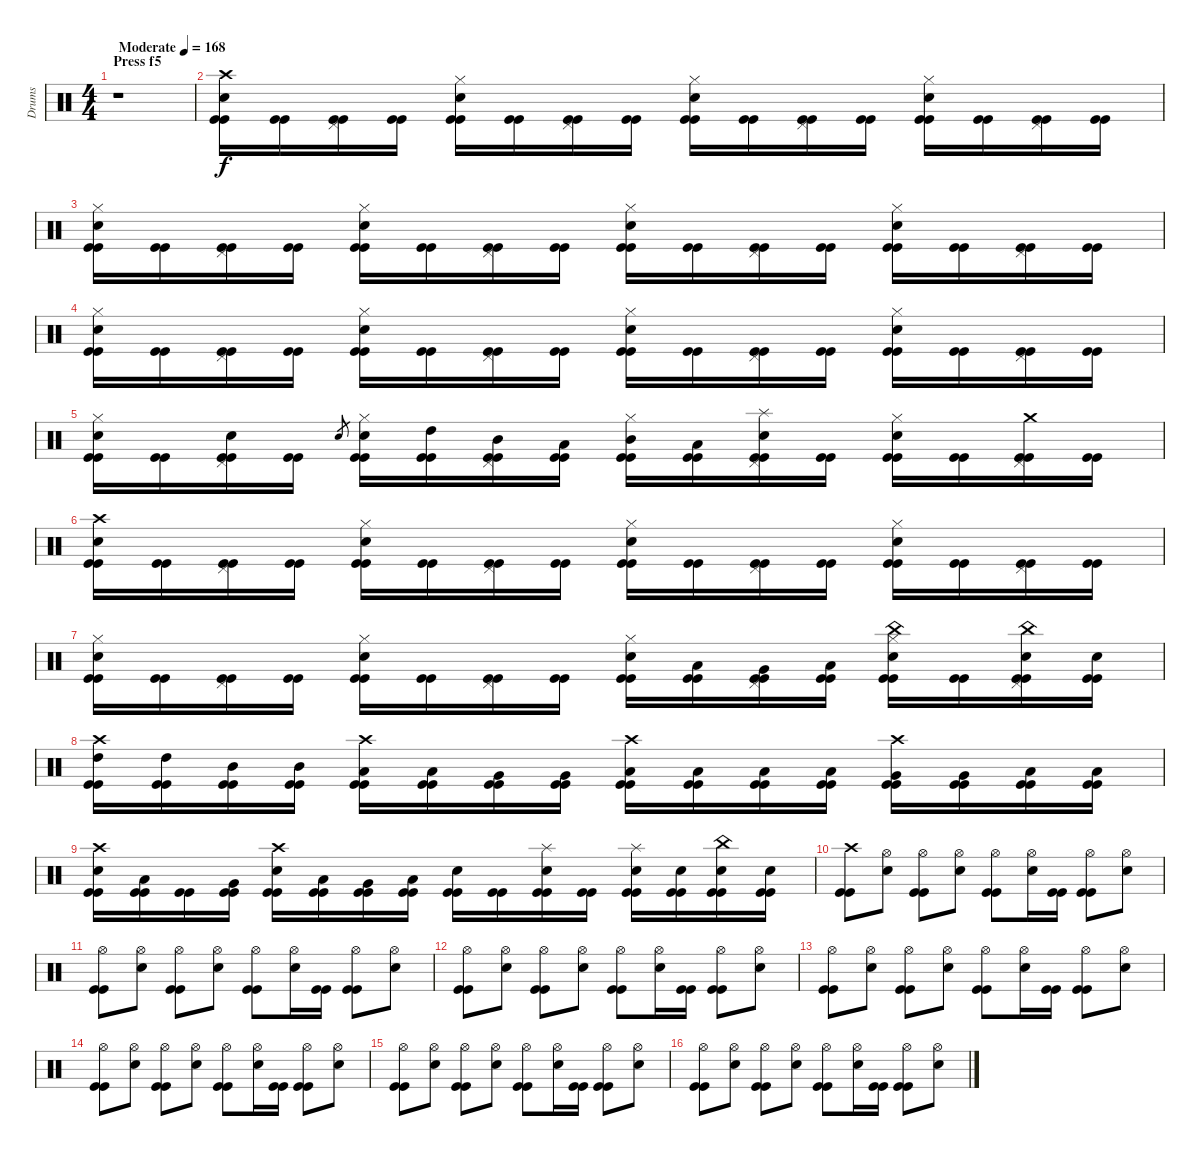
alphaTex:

\track ("Drums" "Drums") {instrument percussion}
\staff {score}
\articulation defaults
\ts (4 4)
\section ("" "Press f5")
\tempo (168 "Moderate")
\clef neutral
\ks c
r.1{dy f} |
("Crash high (hit)" "Electric Snare (hit)" "Kick (hit)" "Kick (hit)").16 ("Kick (hit)" "Kick (hit)").16 ("Pedal Hi-Hat (hit)" "Kick (hit)" "Kick (hit)").16 ("Kick (hit)" "Kick (hit)").16 ("Hi-Hat (closed)" "Electric Snare (hit)" "Kick (hit)" "Kick (hit)").16 ("Kick (hit)" "Kick (hit)").16 ("Pedal Hi-Hat (hit)" "Kick (hit)" "Kick (hit)").16 ("Kick (hit)" "Kick (hit)").16 ("Hi-Hat (closed)" "Electric Snare (hit)" "Kick (hit)" "Kick (hit)").16 ("Kick (hit)" "Kick (hit)").16 ("Pedal Hi-Hat (hit)" "Kick (hit)" "Kick (hit)").16 ("Kick (hit)" "Kick (hit)").16 ("Hi-Hat (closed)" "Electric Snare (hit)" "Kick (hit)" "Kick (hit)").16 ("Kick (hit)" "Kick (hit)").16 ("Pedal Hi-Hat (hit)" "Kick (hit)" "Kick (hit)").16 ("Kick (hit)" "Kick (hit)").16 |
("Hi-Hat (closed)" "Electric Snare (hit)" "Kick (hit)" "Kick (hit)").16 ("Kick (hit)" "Kick (hit)").16 ("Pedal Hi-Hat (hit)" "Kick (hit)" "Kick (hit)").16 ("Kick (hit)" "Kick (hit)").16 ("Hi-Hat (closed)" "Electric Snare (hit)" "Kick (hit)" "Kick (hit)").16 ("Kick (hit)" "Kick (hit)").16 ("Pedal Hi-Hat (hit)" "Kick (hit)" "Kick (hit)").16 ("Kick (hit)" "Kick (hit)").16 ("Hi-Hat (closed)" "Electric Snare (hit)" "Kick (hit)" "Kick (hit)").16 ("Kick (hit)" "Kick (hit)").16 ("Pedal Hi-Hat (hit)" "Kick (hit)" "Kick (hit)").16 ("Kick (hit)" "Kick (hit)").16 ("Hi-Hat (closed)" "Electric Snare (hit)" "Kick (hit)" "Kick (hit)").16 ("Kick (hit)" "Kick (hit)").16 ("Pedal Hi-Hat (hit)" "Kick (hit)" "Kick (hit)").16 ("Kick (hit)" "Kick (hit)").16 |
("Hi-Hat (closed)" "Electric Snare (hit)" "Kick (hit)" "Kick (hit)").16 ("Kick (hit)" "Kick (hit)").16 ("Pedal Hi-Hat (hit)" "Kick (hit)" "Kick (hit)").16 ("Kick (hit)" "Kick (hit)").16 ("Hi-Hat (closed)" "Electric Snare (hit)" "Kick (hit)" "Kick (hit)").16 ("Kick (hit)" "Kick (hit)").16 ("Pedal Hi-Hat (hit)" "Kick (hit)" "Kick (hit)").16 ("Kick (hit)" "Kick (hit)").16 ("Hi-Hat (closed)" "Electric Snare (hit)" "Kick (hit)" "Kick (hit)").16 ("Kick (hit)" "Kick (hit)").16 ("Pedal Hi-Hat (hit)" "Kick (hit)" "Kick (hit)").16 ("Kick (hit)" "Kick (hit)").16 ("Hi-Hat (closed)" "Electric Snare (hit)" "Kick (hit)" "Kick (hit)").16 ("Kick (hit)" "Kick (hit)").16 ("Pedal Hi-Hat (hit)" "Kick (hit)" "Kick (hit)").16 ("Kick (hit)" "Kick (hit)").16 |
("Hi-Hat (closed)" "Electric Snare (hit)" "Kick (hit)" "Kick (hit)").16 ("Kick (hit)" "Kick (hit)").16 ("Pedal Hi-Hat (hit)" "Electric Snare (hit)" "Kick (hit)" "Kick (hit)").16 ("Kick (hit)" "Kick (hit)").16 "Electric Snare (hit)".8{gr} ("Hi-Hat (closed)" "Electric Snare (hit)" "Kick (hit)" "Kick (hit)").16 ("High Tom (hit)" "Kick (hit)" "Kick (hit)").16 ("Pedal Hi-Hat (hit)" "Mid Tom (hit)" "Kick (hit)" "Kick (hit)").16 ("Low Tom (hit)" "Kick (hit)" "Kick (hit)").16 ("Hi-Hat (closed)" "Mid Tom (hit)" "Kick (hit)" "Kick (hit)").16 ("Low Tom (hit)" "Kick (hit)" "Kick (hit)").16 ("Splash (hit)" "Pedal Hi-Hat (hit)" "Electric Snare (hit)" "Kick (hit)" "Kick (hit)").16 ("Kick (hit)" "Kick (hit)").16 ("Hi-Hat (closed)" "Electric Snare (hit)" "Kick (hit)" "Kick (hit)").16 ("Kick (hit)" "Kick (hit)").16 ("Crash medium (hit)" "Pedal Hi-Hat (hit)" "Kick (hit)" "Kick (hit)").16 ("Kick (hit)" "Kick (hit)").16 |
("Crash high (hit)" "Electric Snare (hit)" "Kick (hit)" "Kick (hit)").16 ("Kick (hit)" "Kick (hit)").16 ("Pedal Hi-Hat (hit)" "Kick (hit)" "Kick (hit)").16 ("Kick (hit)" "Kick (hit)").16 ("Hi-Hat (closed)" "Electric Snare (hit)" "Kick (hit)" "Kick (hit)").16 ("Kick (hit)" "Kick (hit)").16 ("Pedal Hi-Hat (hit)" "Kick (hit)" "Kick (hit)").16 ("Kick (hit)" "Kick (hit)").16 ("Hi-Hat (closed)" "Electric Snare (hit)" "Kick (hit)" "Kick (hit)").16 ("Kick (hit)" "Kick (hit)").16 ("Pedal Hi-Hat (hit)" "Kick (hit)" "Kick (hit)").16 ("Kick (hit)" "Kick (hit)").16 ("Hi-Hat (closed)" "Electric Snare (hit)" "Kick (hit)" "Kick (hit)").16 ("Kick (hit)" "Kick (hit)").16 ("Pedal Hi-Hat (hit)" "Kick (hit)" "Kick (hit)").16 ("Kick (hit)" "Kick (hit)").16 |
("Hi-Hat (closed)" "Electric Snare (hit)" "Kick (hit)" "Kick (hit)").16 ("Kick (hit)" "Kick (hit)").16 ("Pedal Hi-Hat (hit)" "Kick (hit)" "Kick (hit)").16 ("Kick (hit)" "Kick (hit)").16 ("Hi-Hat (closed)" "Electric Snare (hit)" "Kick (hit)" "Kick (hit)").16 ("Kick (hit)" "Kick (hit)").16 ("Pedal Hi-Hat (hit)" "Kick (hit)" "Kick (hit)").16 ("Kick (hit)" "Kick (hit)").16 ("Hi-Hat (closed)" "Electric Snare (hit)" "Kick (hit)" "Kick (hit)").16 ("Low Tom (hit)" "Kick (hit)" "Kick (hit)").16 ("Pedal Hi-Hat (hit)" "Very Low Tom (hit)" "Kick (hit)" "Kick (hit)").16 ("Low Tom (hit)" "Kick (hit)" "Kick (hit)").16 ("China (hit)" "Hi-Hat (closed)" "Electric Snare (hit)" "Kick (hit)" "Kick (hit)").16 ("Kick (hit)" "Kick (hit)").16 ("China (hit)" "Pedal Hi-Hat (hit)" "Electric Snare (hit)" "Kick (hit)" "Kick (hit)").16 ("Electric Snare (hit)" "Kick (hit)" "Kick (hit)").16 |
("Crash high (hit)" "High Tom (hit)" "Kick (hit)" "Kick (hit)").16 ("High Tom (hit)" "Kick (hit)" "Kick (hit)").16 ("Mid Tom (hit)" "Kick (hit)" "Kick (hit)").16 ("Mid Tom (hit)" "Kick (hit)" "Kick (hit)").16 ("Crash high (hit)" "Low Tom (hit)" "Kick (hit)" "Kick (hit)").16 ("Low Tom (hit)" "Kick (hit)" "Kick (hit)").16 ("Very Low Tom (hit)" "Kick (hit)" "Kick (hit)").16 ("Very Low Tom (hit)" "Kick (hit)" "Kick (hit)").16 ("Crash high (hit)" "Low Floor Tom (hit)" "Kick (hit)" "Kick (hit)").16 ("Low Floor Tom (hit)" "Kick (hit)" "Kick (hit)").16 ("Low Tom (hit)" "Kick (hit)" "Kick (hit)").16 ("Low Tom (hit)" "Kick (hit)" "Kick (hit)").16 ("Crash high (hit)" "Very Low Tom (hit)" "Kick (hit)" "Kick (hit)").16 ("Very Low Tom (hit)" "Kick (hit)" "Kick (hit)").16 ("Low Floor Tom (hit)" "Kick (hit)" "Kick (hit)").16 ("Low Floor Tom (hit)" "Kick (hit)" "Kick (hit)").16 |
("Crash high (hit)" "Electric Snare (hit)" "Kick (hit)" "Kick (hit)").16 ("Low Tom (hit)" "Kick (hit)" "Kick (hit)").16 ("Kick (hit)" "Kick (hit)").16 ("Very Low Tom (hit)" "Kick (hit)" "Kick (hit)").16 ("Crash high (hit)" "Electric Snare (hit)" "Kick (hit)" "Kick (hit)").16 ("Low Tom (hit)" "Kick (hit)" "Kick (hit)").16 ("Very Low Tom (hit)" "Kick (hit)" "Kick (hit)").16 ("Low Floor Tom (hit)" "Kick (hit)" "Kick (hit)").16 ("Electric Snare (hit)" "Kick (hit)" "Kick (hit)").16 ("Kick (hit)" "Kick (hit)").16 ("Splash (hit)" "Electric Snare (hit)" "Kick (hit)" "Kick (hit)").16 ("Kick (hit)" "Kick (hit)").16 ("Splash (hit)" "Electric Snare (hit)" "Kick (hit)" "Kick (hit)").16 ("Electric Snare (hit)" "Kick (hit)" "Kick (hit)").16 ("China (hit)" "Electric Snare (hit)" "Kick (hit)" "Kick (hit)").16 ("Electric Snare (hit)" "Kick (hit)" "Kick (hit)").16 |
("Crash high (hit)" "Kick (hit)" "Kick (hit)").8 ("Hi-Hat (open)" "Electric Snare (hit)").8 ("Hi-Hat (open)" "Kick (hit)" "Kick (hit)").8 ("Hi-Hat (open)" "Electric Snare (hit)").8 ("Hi-Hat (open)" "Kick (hit)" "Kick (hit)").8 ("Hi-Hat (open)" "Electric Snare (hit)").16 ("Kick (hit)" "Kick (hit)").16 ("Hi-Hat (open)" "Kick (hit)" "Kick (hit)").8 ("Hi-Hat (open)" "Electric Snare (hit)").8 |
("Hi-Hat (open)" "Kick (hit)" "Kick (hit)").8 ("Hi-Hat (open)" "Electric Snare (hit)").8 ("Hi-Hat (open)" "Kick (hit)" "Kick (hit)").8 ("Hi-Hat (open)" "Electric Snare (hit)").8 ("Hi-Hat (open)" "Kick (hit)" "Kick (hit)").8 ("Hi-Hat (open)" "Electric Snare (hit)").16 ("Kick (hit)" "Kick (hit)").16 ("Hi-Hat (open)" "Kick (hit)" "Kick (hit)").8 ("Hi-Hat (open)" "Electric Snare (hit)").8 |
("Hi-Hat (open)" "Kick (hit)" "Kick (hit)").8 ("Hi-Hat (open)" "Electric Snare (hit)").8 ("Hi-Hat (open)" "Kick (hit)" "Kick (hit)").8 ("Hi-Hat (open)" "Electric Snare (hit)").8 ("Hi-Hat (open)" "Kick (hit)" "Kick (hit)").8 ("Hi-Hat (open)" "Electric Snare (hit)").16 ("Kick (hit)" "Kick (hit)").16 ("Hi-Hat (open)" "Kick (hit)" "Kick (hit)").8 ("Hi-Hat (open)" "Electric Snare (hit)").8 |
("Hi-Hat (open)" "Kick (hit)" "Kick (hit)").8 ("Hi-Hat (open)" "Electric Snare (hit)").8 ("Hi-Hat (open)" "Kick (hit)" "Kick (hit)").8 ("Hi-Hat (open)" "Electric Snare (hit)").8 ("Hi-Hat (open)" "Kick (hit)" "Kick (hit)").8 ("Hi-Hat (open)" "Electric Snare (hit)").16 ("Kick (hit)" "Kick (hit)").16 ("Hi-Hat (open)" "Kick (hit)" "Kick (hit)").8 ("Hi-Hat (open)" "Electric Snare (hit)").8 |
("Hi-Hat (open)" "Kick (hit)" "Kick (hit)").8 ("Hi-Hat (open)" "Electric Snare (hit)").8 ("Hi-Hat (open)" "Kick (hit)" "Kick (hit)").8 ("Hi-Hat (open)" "Electric Snare (hit)").8 ("Hi-Hat (open)" "Kick (hit)" "Kick (hit)").8 ("Hi-Hat (open)" "Electric Snare (hit)").16 ("Kick (hit)" "Kick (hit)").16 ("Hi-Hat (open)" "Kick (hit)" "Kick (hit)").8 ("Hi-Hat (open)" "Electric Snare (hit)").8 |
("Hi-Hat (open)" "Kick (hit)" "Kick (hit)").8 ("Hi-Hat (open)" "Electric Snare (hit)").8 ("Hi-Hat (open)" "Kick (hit)" "Kick (hit)").8 ("Hi-Hat (open)" "Electric Snare (hit)").8 ("Hi-Hat (open)" "Kick (hit)" "Kick (hit)").8 ("Hi-Hat (open)" "Electric Snare (hit)").16 ("Kick (hit)" "Kick (hit)").16 ("Hi-Hat (open)" "Kick (hit)" "Kick (hit)").8 ("Hi-Hat (open)" "Electric Snare (hit)").8 |
("Hi-Hat (open)" "Kick (hit)" "Kick (hit)").8 ("Hi-Hat (open)" "Electric Snare (hit)").8 ("Hi-Hat (open)" "Kick (hit)" "Kick (hit)").8 ("Hi-Hat (open)" "Electric Snare (hit)").8 ("Hi-Hat (open)" "Kick (hit)" "Kick (hit)").8 ("Hi-Hat (open)" "Electric Snare (hit)").16 ("Kick (hit)" "Kick (hit)").16 ("Hi-Hat (open)" "Kick (hit)" "Kick (hit)").8 ("Hi-Hat (open)" "Electric Snare (hit)").8
